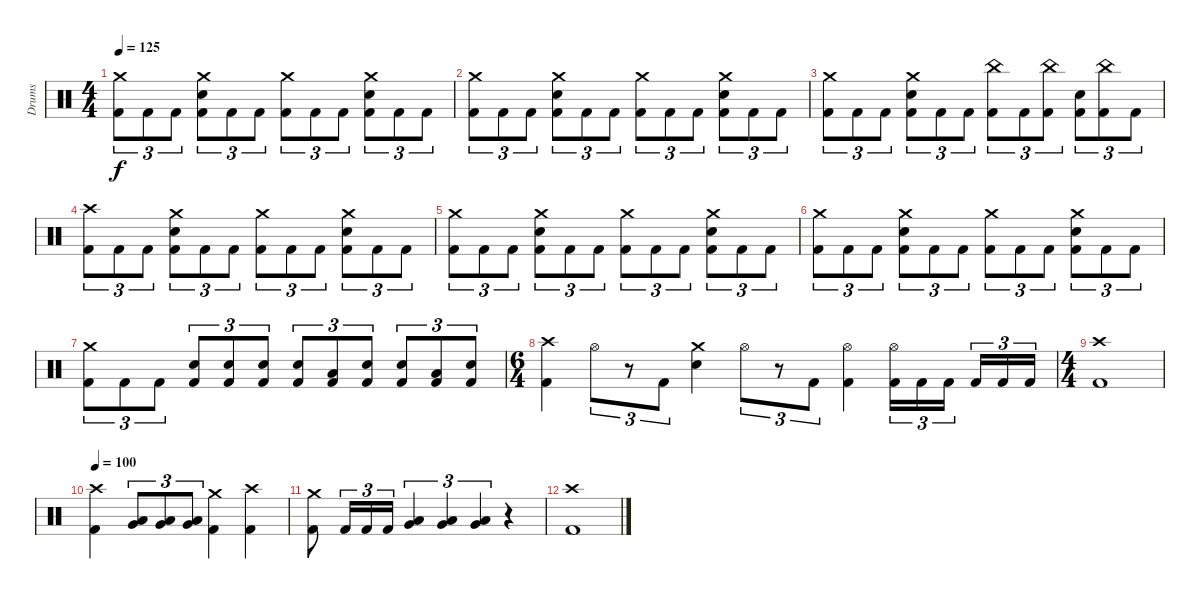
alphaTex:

\track ("Drums" "Drums") {instrument percussion}
\staff {score}
\articulation defaults
\ts (4 4)
\tempo 125
\clef neutral
\ks c
("Crash medium (hit)" "Kick (hit) 2").8{tu (3 2) dy f} "Kick (hit) 2".8{tu (3 2)} "Kick (hit) 2".8{tu (3 2)} ("Crash medium (hit)" "Electric Snare (hit)" "Kick (hit) 2").8{tu (3 2)} "Kick (hit) 2".8{tu (3 2)} "Kick (hit) 2".8{tu (3 2)} ("Crash medium (hit)" "Kick (hit) 2").8{tu (3 2)} "Kick (hit) 2".8{tu (3 2)} "Kick (hit) 2".8{tu (3 2)} ("Crash medium (hit)" "Electric Snare (hit)" "Kick (hit) 2").8{tu (3 2)} "Kick (hit) 2".8{tu (3 2)} "Kick (hit) 2".8{tu (3 2)} |
("Crash medium (hit)" "Kick (hit) 2").8{tu (3 2)} "Kick (hit) 2".8{tu (3 2)} "Kick (hit) 2".8{tu (3 2)} ("Crash medium (hit)" "Electric Snare (hit)" "Kick (hit) 2").8{tu (3 2)} "Kick (hit) 2".8{tu (3 2)} "Kick (hit) 2".8{tu (3 2)} ("Crash medium (hit)" "Kick (hit) 2").8{tu (3 2)} "Kick (hit) 2".8{tu (3 2)} "Kick (hit) 2".8{tu (3 2)} ("Crash medium (hit)" "Electric Snare (hit)" "Kick (hit) 2").8{tu (3 2)} "Kick (hit) 2".8{tu (3 2)} "Kick (hit) 2".8{tu (3 2)} |
("Crash medium (hit)" "Kick (hit) 2").8{tu (3 2)} "Kick (hit) 2".8{tu (3 2)} "Kick (hit) 2".8{tu (3 2)} ("Crash medium (hit)" "Electric Snare (hit)" "Kick (hit) 2").8{tu (3 2)} "Kick (hit) 2".8{tu (3 2)} "Kick (hit) 2".8{tu (3 2)} ("China (hit)" "Kick (hit) 2").8{tu (3 2)} "Kick (hit) 2".8{tu (3 2)} ("China (hit)" "Kick (hit) 2").8{tu (3 2)} ("Electric Snare (hit)" "Kick (hit) 2").8{tu (3 2)} ("China (hit)" "Kick (hit) 2").8{tu (3 2)} "Kick (hit) 2".8{tu (3 2)} |
("Crash high (hit)" "Kick (hit) 2").8{tu (3 2)} "Kick (hit) 2".8{tu (3 2)} "Kick (hit) 2".8{tu (3 2)} ("Crash medium (hit)" "Electric Snare (hit)" "Kick (hit) 2").8{tu (3 2)} "Kick (hit) 2".8{tu (3 2)} "Kick (hit) 2".8{tu (3 2)} ("Crash medium (hit)" "Kick (hit) 2").8{tu (3 2)} "Kick (hit) 2".8{tu (3 2)} "Kick (hit) 2".8{tu (3 2)} ("Crash medium (hit)" "Electric Snare (hit)" "Kick (hit) 2").8{tu (3 2)} "Kick (hit) 2".8{tu (3 2)} "Kick (hit) 2".8{tu (3 2)} |
("Crash medium (hit)" "Kick (hit) 2").8{tu (3 2)} "Kick (hit) 2".8{tu (3 2)} "Kick (hit) 2".8{tu (3 2)} ("Crash medium (hit)" "Electric Snare (hit)" "Kick (hit) 2").8{tu (3 2)} "Kick (hit) 2".8{tu (3 2)} "Kick (hit) 2".8{tu (3 2)} ("Crash medium (hit)" "Kick (hit) 2").8{tu (3 2)} "Kick (hit) 2".8{tu (3 2)} "Kick (hit) 2".8{tu (3 2)} ("Crash medium (hit)" "Electric Snare (hit)" "Kick (hit) 2").8{tu (3 2)} "Kick (hit) 2".8{tu (3 2)} "Kick (hit) 2".8{tu (3 2)} |
("Crash medium (hit)" "Kick (hit) 2").8{tu (3 2)} "Kick (hit) 2".8{tu (3 2)} "Kick (hit) 2".8{tu (3 2)} ("Crash medium (hit)" "Electric Snare (hit)" "Kick (hit) 2").8{tu (3 2)} "Kick (hit) 2".8{tu (3 2)} "Kick (hit) 2".8{tu (3 2)} ("Crash medium (hit)" "Kick (hit) 2").8{tu (3 2)} "Kick (hit) 2".8{tu (3 2)} "Kick (hit) 2".8{tu (3 2)} ("Crash medium (hit)" "Electric Snare (hit)" "Kick (hit) 2").8{tu (3 2)} "Kick (hit) 2".8{tu (3 2)} "Kick (hit) 2".8{tu (3 2)} |
("Crash medium (hit)" "Kick (hit) 2").8{tu (3 2)} "Kick (hit) 2".8{tu (3 2)} "Kick (hit) 2".8{tu (3 2)} ("Electric Snare (hit)" "Kick (hit) 2").8{tu (3 2)} ("Electric Snare (hit)" "Kick (hit) 2").8{tu (3 2)} ("Electric Snare (hit)" "Kick (hit) 2").8{tu (3 2)} ("Electric Snare (hit)" "Kick (hit) 2").8{tu (3 2)} ("Low Tom (hit)" "Kick (hit) 2").8{tu (3 2)} ("Electric Snare (hit)" "Kick (hit) 2").8{tu (3 2)} ("Electric Snare (hit)" "Kick (hit) 2").8{tu (3 2)} ("Low Tom (hit)" "Kick (hit) 2").8{tu (3 2)} ("Electric Snare (hit)" "Kick (hit) 2").8{tu (3 2)} |
\ts (6 4)
("Crash high (hit)" "Kick (hit) 2").4 "Hi-Hat (open)".8{tu (3 2)} r.8{tu (3 2)} "Kick (hit) 2".8{tu (3 2)} ("Crash medium (hit)" "Electric Snare (hit)").4 "Hi-Hat (open)".8{tu (3 2)} r.8{tu (3 2)} "Kick (hit) 2".8{tu (3 2)} ("Hi-Hat (open)" "Kick (hit) 2").4 ("Hi-Hat (open)" "Kick (hit) 2").16{tu (3 2)} "Kick (hit) 2".16{tu (3 2)} "Kick (hit) 2".16{tu (3 2)} "Kick (hit) 2".16{tu (3 2)} "Kick (hit) 2".16{tu (3 2)} "Kick (hit) 2".16{tu (3 2)} |
\ts (4 4)
("Crash high (hit)" "Kick (hit) 2").1 |
\tempo 100
("Crash high (hit)" "Kick (hit) 2").4 ("Low Tom (hit)" "Very Low Tom (hit)").8{tu (3 2)} ("Low Tom (hit)" "Very Low Tom (hit)").8{tu (3 2)} ("Low Tom (hit)" "Very Low Tom (hit)").8{tu (3 2)} ("Crash medium (hit)" "Kick (hit) 2").4 ("Crash high (hit)" "Kick (hit) 2").4 |
("Crash medium (hit)" "Kick (hit) 2").8 "Kick (hit) 2".16{tu (3 2)} "Kick (hit) 2".16{tu (3 2)} "Kick (hit) 2".16{tu (3 2)} ("Very Low Tom (hit)" "Low Floor Tom (hit)").4{tu (3 2)} ("Very Low Tom (hit)" "Low Floor Tom (hit)").4{tu (3 2)} ("Very Low Tom (hit)" "Low Floor Tom (hit)").4{tu (3 2)} r.4 |
("Crash high (hit)" "Kick (hit) 2").1
